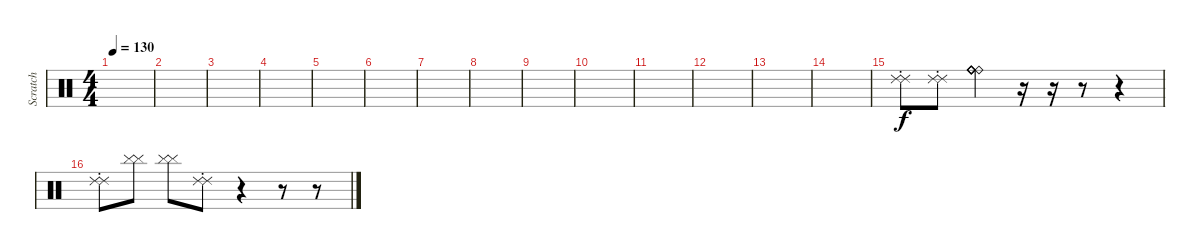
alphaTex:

\track ("Scratch" "Scratch") {instrument percussion}
\staff {score}
\articulation defaults
\ts (4 4)
\tempo 130
\clef neutral
\ks c
|
|
|
|
|
|
|
|
|
|
|
|
|
|
("Ride (choke) 2" "Ride (choke) 2").8 ("Ride (choke) 2" "Ride (choke) 2").8 ("Ride (bell)" "Ride (bell)" "Ride (bell)" "Ride (bell)" "Ride (bell)" "Ride (bell)").4 r.16 r.16 r.8 r.4 |
("Ride (choke) 2" "Ride (choke) 2").8 ("Cymbal (hit)" "Cymbal (hit)").8 ("Cymbal (hit)" "Cymbal (hit)").8 ("Ride (choke) 2" "Ride (choke) 2").8 r.4 r.8 r.8
